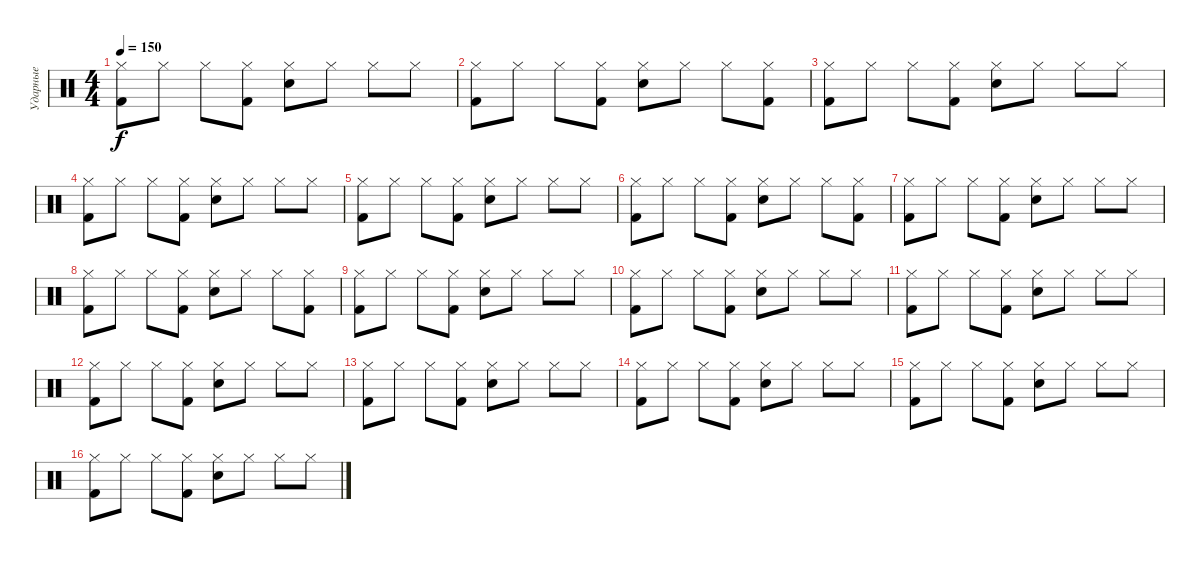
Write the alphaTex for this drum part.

\track ("Ударные" "Ударные") {instrument percussion}
\staff {score}
\articulation defaults
\ts (4 4)
\tempo 150
\clef neutral
\ks c
("Hi-Hat (closed)" "Kick (hit) 2").8{dy f} "Hi-Hat (closed)".8 "Hi-Hat (closed)".8 ("Hi-Hat (closed)" "Kick (hit) 2").8 ("Hi-Hat (closed)" "Electric Snare (hit)").8 "Hi-Hat (closed)".8 "Hi-Hat (closed)".8 "Hi-Hat (closed)".8 |
("Hi-Hat (closed)" "Kick (hit) 2").8 "Hi-Hat (closed)".8 "Hi-Hat (closed)".8 ("Hi-Hat (closed)" "Kick (hit) 2").8 ("Hi-Hat (closed)" "Electric Snare (hit)").8 "Hi-Hat (closed)".8 "Hi-Hat (closed)".8 ("Hi-Hat (closed)" "Kick (hit) 2").8 |
("Hi-Hat (closed)" "Kick (hit) 2").8 "Hi-Hat (closed)".8 "Hi-Hat (closed)".8 ("Hi-Hat (closed)" "Kick (hit) 2").8 ("Hi-Hat (closed)" "Electric Snare (hit)").8 "Hi-Hat (closed)".8 "Hi-Hat (closed)".8 "Hi-Hat (closed)".8 |
("Hi-Hat (closed)" "Kick (hit) 2").8 "Hi-Hat (closed)".8 "Hi-Hat (closed)".8 ("Hi-Hat (closed)" "Kick (hit) 2").8 ("Hi-Hat (closed)" "Electric Snare (hit)").8 "Hi-Hat (closed)".8 "Hi-Hat (closed)".8 "Hi-Hat (closed)".8 |
("Hi-Hat (closed)" "Kick (hit) 2").8 "Hi-Hat (closed)".8 "Hi-Hat (closed)".8 ("Hi-Hat (closed)" "Kick (hit) 2").8 ("Hi-Hat (closed)" "Electric Snare (hit)").8 "Hi-Hat (closed)".8 "Hi-Hat (closed)".8 "Hi-Hat (closed)".8 |
("Hi-Hat (closed)" "Kick (hit) 2").8 "Hi-Hat (closed)".8 "Hi-Hat (closed)".8 ("Hi-Hat (closed)" "Kick (hit) 2").8 ("Hi-Hat (closed)" "Electric Snare (hit)").8 "Hi-Hat (closed)".8 "Hi-Hat (closed)".8 ("Hi-Hat (closed)" "Kick (hit) 2").8 |
("Hi-Hat (closed)" "Kick (hit) 2").8 "Hi-Hat (closed)".8 "Hi-Hat (closed)".8 ("Hi-Hat (closed)" "Kick (hit) 2").8 ("Hi-Hat (closed)" "Electric Snare (hit)").8 "Hi-Hat (closed)".8 "Hi-Hat (closed)".8 "Hi-Hat (closed)".8 |
("Hi-Hat (closed)" "Kick (hit) 2").8 "Hi-Hat (closed)".8 "Hi-Hat (closed)".8 ("Hi-Hat (closed)" "Kick (hit) 2").8 ("Hi-Hat (closed)" "Electric Snare (hit)").8 "Hi-Hat (closed)".8 "Hi-Hat (closed)".8 ("Hi-Hat (closed)" "Kick (hit) 2").8 |
("Hi-Hat (closed)" "Kick (hit) 2").8 "Hi-Hat (closed)".8 "Hi-Hat (closed)".8 ("Hi-Hat (closed)" "Kick (hit) 2").8 ("Hi-Hat (closed)" "Electric Snare (hit)").8 "Hi-Hat (closed)".8 "Hi-Hat (closed)".8 "Hi-Hat (closed)".8 |
("Hi-Hat (closed)" "Kick (hit) 2").8 "Hi-Hat (closed)".8 "Hi-Hat (closed)".8 ("Hi-Hat (closed)" "Kick (hit) 2").8 ("Hi-Hat (closed)" "Electric Snare (hit)").8 "Hi-Hat (closed)".8 "Hi-Hat (closed)".8 "Hi-Hat (closed)".8 |
("Hi-Hat (closed)" "Kick (hit) 2").8 "Hi-Hat (closed)".8 "Hi-Hat (closed)".8 ("Hi-Hat (closed)" "Kick (hit) 2").8 ("Hi-Hat (closed)" "Electric Snare (hit)").8 "Hi-Hat (closed)".8 "Hi-Hat (closed)".8 "Hi-Hat (closed)".8 |
("Hi-Hat (closed)" "Kick (hit) 2").8 "Hi-Hat (closed)".8 "Hi-Hat (closed)".8 ("Hi-Hat (closed)" "Kick (hit) 2").8 ("Hi-Hat (closed)" "Electric Snare (hit)").8 "Hi-Hat (closed)".8 "Hi-Hat (closed)".8 "Hi-Hat (closed)".8 |
("Hi-Hat (closed)" "Kick (hit) 2").8 "Hi-Hat (closed)".8 "Hi-Hat (closed)".8 ("Hi-Hat (closed)" "Kick (hit) 2").8 ("Hi-Hat (closed)" "Electric Snare (hit)").8 "Hi-Hat (closed)".8 "Hi-Hat (closed)".8 "Hi-Hat (closed)".8 |
("Hi-Hat (closed)" "Kick (hit) 2").8 "Hi-Hat (closed)".8 "Hi-Hat (closed)".8 ("Hi-Hat (closed)" "Kick (hit) 2").8 ("Hi-Hat (closed)" "Electric Snare (hit)").8 "Hi-Hat (closed)".8 "Hi-Hat (closed)".8 "Hi-Hat (closed)".8 |
("Hi-Hat (closed)" "Kick (hit) 2").8 "Hi-Hat (closed)".8 "Hi-Hat (closed)".8 ("Hi-Hat (closed)" "Kick (hit) 2").8 ("Hi-Hat (closed)" "Electric Snare (hit)").8 "Hi-Hat (closed)".8 "Hi-Hat (closed)".8 "Hi-Hat (closed)".8 |
("Hi-Hat (closed)" "Kick (hit) 2").8 "Hi-Hat (closed)".8 "Hi-Hat (closed)".8 ("Hi-Hat (closed)" "Kick (hit) 2").8 ("Hi-Hat (closed)" "Electric Snare (hit)").8 "Hi-Hat (closed)".8 "Hi-Hat (closed)".8 "Hi-Hat (closed)".8
